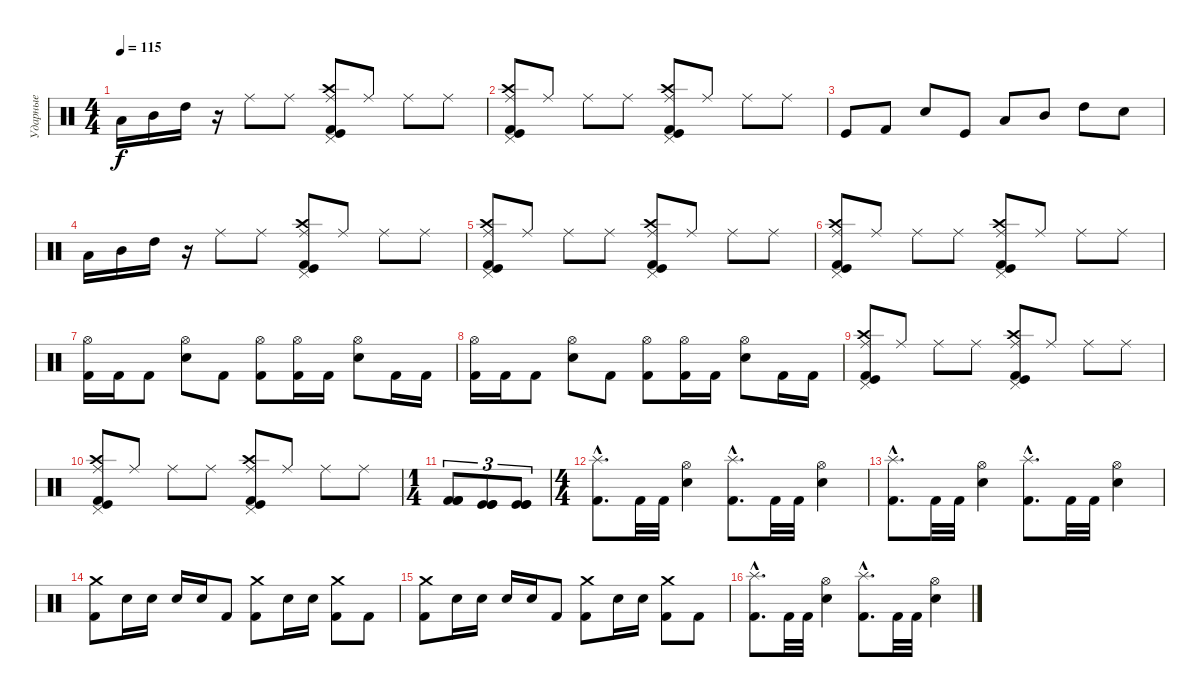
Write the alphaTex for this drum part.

\track ("Ударные" "Ударные") {instrument percussion}
\staff {score}
\articulation defaults
\ts (4 4)
\tempo 115
\clef neutral
\ks c "Low Tom (hit)".16{dy f} "Mid Tom (hit)".16 "High Tom (hit)".16
r.16 "Ride (middle)".8 "Ride (middle)".8 ("Crash high (hit)" "Kick (hit) 2" "Kick (hit)" "Pedal Hi-Hat (hit)" "Ride (middle)").8 "Ride (middle)".8 "Ride (middle)".8 "Ride (middle)".8 |
("Crash high (hit)" "Kick (hit) 2" "Kick (hit)" "Pedal Hi-Hat (hit)" "Ride (middle)").8 "Ride (middle)".8 "Ride (middle)".8 "Ride (middle)".8 ("Crash high (hit)" "Kick (hit) 2" "Kick (hit)" "Pedal Hi-Hat (hit)" "Ride (middle)").8 "Ride (middle)".8 "Ride (middle)".8 "Ride (middle)".8 |
"Kick (hit)".8 "Kick (hit) 2".8 "Electric Snare (hit)".8 "Kick (hit)".8 "Low Tom (hit)".8 "Mid Tom (hit)".8 "High Tom (hit)".8 "Electric Snare (hit)".8 |
"Low Tom (hit)".16 "Mid Tom (hit)".16 "High Tom (hit)".16 r.16 "Ride (middle)".8 "Ride (middle)".8 ("Crash high (hit)" "Kick (hit) 2" "Kick (hit)" "Pedal Hi-Hat (hit)" "Ride (middle)").8 "Ride (middle)".8 "Ride (middle)".8 "Ride (middle)".8 |
("Crash high (hit)" "Kick (hit) 2" "Kick (hit)" "Pedal Hi-Hat (hit)" "Ride (middle)").8 "Ride (middle)".8 "Ride (middle)".8 "Ride (middle)".8 ("Crash high (hit)" "Kick (hit) 2" "Kick (hit)" "Pedal Hi-Hat (hit)" "Ride (middle)").8 "Ride (middle)".8 "Ride (middle)".8 "Ride (middle)".8 |
("Crash high (hit)" "Kick (hit) 2" "Kick (hit)" "Pedal Hi-Hat (hit)" "Ride (middle)").8 "Ride (middle)".8 "Ride (middle)".8 "Ride (middle)".8 ("Crash high (hit)" "Kick (hit) 2" "Kick (hit)" "Pedal Hi-Hat (hit)" "Ride (middle)").8 "Ride (middle)".8 "Ride (middle)".8 "Ride (middle)".8 |
("Kick (hit) 2" "Hi-Hat (open)").16 "Kick (hit) 2".16 "Kick (hit) 2".8 ("Hi-Hat (open)" "Electric Snare (hit)").8 "Kick (hit) 2".8 ("Kick (hit) 2" "Hi-Hat (open)").8 ("Kick (hit) 2" "Hi-Hat (open)").16 "Kick (hit) 2".16 ("Hi-Hat (open)" "Electric Snare (hit)").8 "Kick (hit) 2".16 "Kick (hit) 2".16 |
("Kick (hit) 2" "Hi-Hat (open)").16 "Kick (hit) 2".16 "Kick (hit) 2".8 ("Hi-Hat (open)" "Electric Snare (hit)").8 "Kick (hit) 2".8 ("Kick (hit) 2" "Hi-Hat (open)").8 ("Kick (hit) 2" "Hi-Hat (open)").16 "Kick (hit) 2".16 ("Hi-Hat (open)" "Electric Snare (hit)").8 "Kick (hit) 2".16 "Kick (hit) 2".16 |
("Crash high (hit)" "Kick (hit) 2" "Kick (hit)" "Pedal Hi-Hat (hit)" "Ride (middle)").8 "Ride (middle)".8 "Ride (middle)".8 "Ride (middle)".8 ("Crash high (hit)" "Kick (hit) 2" "Kick (hit)" "Pedal Hi-Hat (hit)" "Ride (middle)").8 "Ride (middle)".8 "Ride (middle)".8 "Ride (middle)".8 |
("Crash high (hit)" "Kick (hit) 2" "Kick (hit)" "Pedal Hi-Hat (hit)" "Ride (middle)").8 "Ride (middle)".8 "Ride (middle)".8 "Ride (middle)".8 ("Crash high (hit)" "Kick (hit) 2" "Kick (hit)" "Pedal Hi-Hat (hit)" "Ride (middle)").8 "Ride (middle)".8 "Ride (middle)".8 "Ride (middle)".8 |
\ts (1 4)
("Kick (hit) 2" "Kick (hit) 2" "Kick (hit) 2").8{tu (3 2)} ("Kick (hit)" "Kick (hit)" "Kick (hit)").8{tu (3 2)} ("Kick (hit)" "Kick (hit)" "Kick (hit)").8{tu (3 2)} |
\ts (4 4)
("Kick (hit) 2"{hac} "Splash (hit)"{hac}).8{d} "Kick (hit) 2".32 "Kick (hit) 2".32 ("Hi-Hat (open)" "Electric Snare (hit)").4 ("Kick (hit) 2"{hac} "Splash (hit)"{hac}).8{d} "Kick (hit) 2".32 "Kick (hit) 2".32 ("Hi-Hat (open)" "Electric Snare (hit)").4 |
("Kick (hit) 2"{hac} "Splash (hit)"{hac}).8{d} "Kick (hit) 2".32 "Kick (hit) 2".32 ("Hi-Hat (open)" "Electric Snare (hit)").4 ("Kick (hit) 2"{hac} "Splash (hit)"{hac}).8{d} "Kick (hit) 2".32 "Kick (hit) 2".32 ("Hi-Hat (open)" "Electric Snare (hit)").4 |
("Kick (hit) 2" "Crash medium (hit)").8 "Electric Snare (hit)".16 "Electric Snare (hit)".16 "Electric Snare (hit)".16 "Electric Snare (hit)".16 "Kick (hit) 2".8 ("Kick (hit) 2" "Crash medium (hit)").8 "Electric Snare (hit)".16 "Electric Snare (hit)".16 ("Kick (hit) 2" "Crash medium (hit)").8 "Kick (hit) 2".8 |
("Kick (hit) 2" "Crash medium (hit)").8 "Electric Snare (hit)".16 "Electric Snare (hit)".16 "Electric Snare (hit)".16 "Electric Snare (hit)".16 "Kick (hit) 2".8 ("Kick (hit) 2" "Crash medium (hit)").8 "Electric Snare (hit)".16 "Electric Snare (hit)".16 ("Kick (hit) 2" "Crash medium (hit)").8 "Kick (hit) 2".8 |
("Kick (hit) 2"{hac} "Splash (hit)"{hac}).8{d} "Kick (hit) 2".32 "Kick (hit) 2".32 ("Hi-Hat (open)" "Electric Snare (hit)").4 ("Kick (hit) 2"{hac} "Splash (hit)"{hac}).8{d} "Kick (hit) 2".32 "Kick (hit) 2".32 ("Hi-Hat (open)" "Electric Snare (hit)").4
